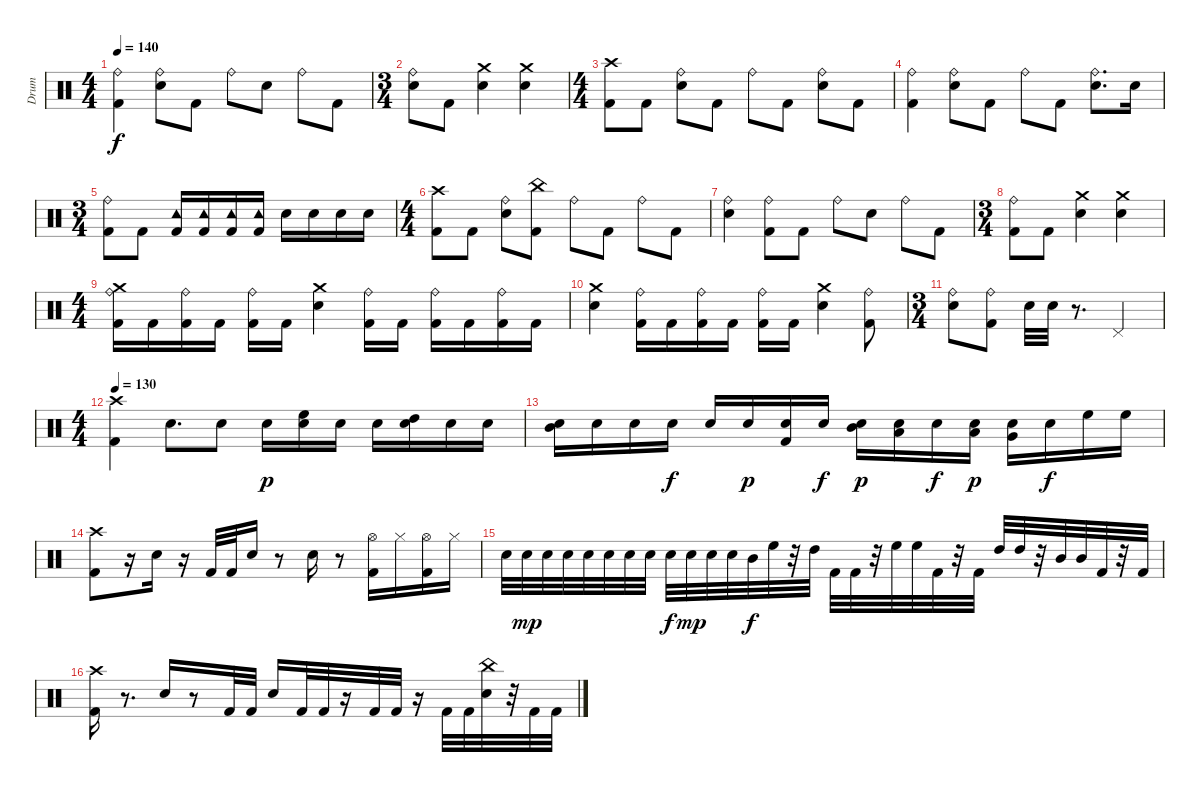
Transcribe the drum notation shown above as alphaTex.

\track ("Drum" "Drum") {instrument percussion}
\staff {score}
\articulation defaults
\ts (4 4)
\tempo 140
\clef neutral
\ks c
("Kick (hit) 2" "Ride (bell)").4{dy f} ("Electric Snare (hit)" "Ride (bell)").8 "Kick (hit) 2".8 "Ride (bell)".8 "Electric Snare (hit)".8 "Ride (bell)".8 "Kick (hit) 2".8 |
\ts (3 4)
("Ride (bell)" "Electric Snare (hit)").8 "Kick (hit) 2".8 ("Electric Snare (hit)" "Crash medium (hit)").4 ("Electric Snare (hit)" "Crash medium (hit)").4 |
\ts (4 4)
("Crash high (hit)" "Kick (hit) 2").8 "Kick (hit) 2".8 ("Electric Snare (hit)" "Ride (bell)").8 "Kick (hit) 2".8 "Ride (bell)".8 "Kick (hit) 2".8 ("Electric Snare (hit)" "Ride (bell)").8 "Kick (hit) 2".8 |
("Kick (hit) 2" "Ride (bell)").4 ("Electric Snare (hit)" "Ride (bell)").8 "Kick (hit) 2".8 "Ride (bell)".8 "Kick (hit) 2".8 ("Electric Snare (hit)" "Ride (bell)").8{d} "Electric Snare (hit)".16 |
\ts (3 4)
("Ride (bell)" "Kick (hit) 2").8 "Kick (hit) 2".8 ("Kick (hit) 2" "Tambourine (hit)").16 ("Tambourine (hit)" "Kick (hit) 2").16 ("Tambourine (hit)" "Kick (hit) 2").16 ("Tambourine (hit)" "Kick (hit) 2").16 "Electric Snare (hit)".16 "Electric Snare (hit)".16 "Electric Snare (hit)".16 "Electric Snare (hit)".16 |
\ts (4 4)
("Crash high (hit)" "Kick (hit) 2").8 "Kick (hit) 2".8 ("Electric Snare (hit)" "Ride (bell)").8 ("Kick (hit) 2" "China (hit)").8 "Ride (bell)".8 "Kick (hit) 2".8 "Ride (bell)".8 "Kick (hit) 2".8 |
("Ride (bell)" "Electric Snare (hit)").4 ("Ride (bell)" "Kick (hit) 2").8 "Kick (hit) 2".8 "Ride (bell)".8 "Electric Snare (hit)".8 "Ride (bell)".8 "Kick (hit) 2".8 |
\ts (3 4)
("Kick (hit) 2" "Ride (bell)").8 "Kick (hit) 2".8 ("Electric Snare (hit)" "Crash medium (hit)").4 ("Crash medium (hit)" "Electric Snare (hit)").4 |
\ts (4 4)
("Crash medium (hit)" "Kick (hit) 2" "Ride (bell)").16 "Kick (hit) 2".16 ("Kick (hit) 2" "Ride (bell)").16 "Kick (hit) 2".16 ("Kick (hit) 2" "Ride (bell)").16 "Kick (hit) 2".16 ("Electric Snare (hit)" "Crash medium (hit)").4 ("Ride (bell)" "Kick (hit) 2").16 "Kick (hit) 2".16 ("Kick (hit) 2" "Ride (bell)").16 "Kick (hit) 2".16 ("Kick (hit) 2" "Ride (bell)").16 "Kick (hit) 2".16 |
("Electric Snare (hit)" "Crash medium (hit)").4 ("Kick (hit) 2" "Ride (bell)").16 "Kick (hit) 2".16 ("Kick (hit) 2" "Ride (bell)").16 "Kick (hit) 2".16 ("Kick (hit) 2" "Ride (bell)").16 "Kick (hit) 2".16 ("Electric Snare (hit)" "Crash medium (hit)").4 ("Kick (hit) 2" "Ride (bell)").8 |
\ts (3 4)
("Electric Snare (hit)" "Ride (bell)").8 ("Kick (hit) 2" "Ride (bell)").8 "Electric Snare (hit)".32 "Electric Snare (hit)".32 r.8{d} "Pedal Hi-Hat (hit)".4 |
\ts (4 4)
\tempo 130
("Crash high (hit)" "Kick (hit) 2").4 "Electric Snare (hit)".8{d} "Electric Snare (hit)".8 "Electric Snare (hit)".16{dy p} ("High Floor Tom (hit)" "Electric Snare (hit)").16 "Electric Snare (hit)".16 "Electric Snare (hit)".16 ("High Tom (hit)" "Electric Snare (hit)").16 "Electric Snare (hit)".16 "Electric Snare (hit)".16 |
("Mid Tom (hit)" "Electric Snare (hit)").16 "Electric Snare (hit)".16 "Electric Snare (hit)".16 "Electric Snare (hit)".16{dy f} "Electric Snare (hit)".16 "Electric Snare (hit)".16{dy p} ("Kick (hit) 2" "Electric Snare (hit)").16 "Electric Snare (hit)".16{dy f} ("Mid Tom (hit)" "Electric Snare (hit)").16{dy p} ("Low Tom (hit)" "Electric Snare (hit)").16 "Electric Snare (hit)".16{dy f} ("Low Tom (hit)" "Electric Snare (hit)").16{dy p} ("Very Low Tom (hit)" "Electric Snare (hit)").16 "Electric Snare (hit)".16{dy f} "High Floor Tom (hit)".16 "High Floor Tom (hit)".16 |
("Crash high (hit)" "Kick (hit) 2").8 r.16 "Electric Snare (hit)".16 r.16 "Kick (hit) 2".32 "Kick (hit) 2".32 "Electric Snare (hit)".16 r.8 "Electric Snare (hit)".16 r.8 ("Kick (hit) 2" "Hi-Hat (open)").16 "Hi-Hat (closed)".16 ("Kick (hit) 2" "Hi-Hat (open)").16 "Hi-Hat (closed)".16 |
"Electric Snare (hit)".32 "Electric Snare (hit)".32{dy mp} "Electric Snare (hit)".32 "Electric Snare (hit)".32 "Electric Snare (hit)".32 "Electric Snare (hit)".32 "Electric Snare (hit)".32 "Electric Snare (hit)".32 "Electric Snare (hit)".32{dy f} "Electric Snare (hit)".32{dy mp} "Electric Snare (hit)".32 "Electric Snare (hit)".32 "Mid Tom (hit)".32{dy f} "High Floor Tom (hit)".32 r.32 "High Tom (hit)".32 "Kick (hit) 2".32 "Kick (hit) 2".32 r.32 "High Floor Tom (hit)".32 "High Floor Tom (hit)".32 "Kick (hit) 2".32 r.32 "Kick (hit) 2".32 "High Tom (hit)".32 "High Tom (hit)".32 r.32 "Mid Tom (hit)".32 "Mid Tom (hit)".32 "Kick (hit) 2".32 r.32 "Kick (hit) 2".32 |
("Crash high (hit)" "Kick (hit) 2").16 r.8{d} "Electric Snare (hit)".16 r.8 "Kick (hit) 2".32 "Kick (hit) 2".32 "Electric Snare (hit)".16 "Kick (hit) 2".32 "Kick (hit) 2".32 r.16 "Kick (hit) 2".32 "Kick (hit) 2".32 r.16 "Kick (hit) 2".32 "Kick (hit) 2".32 ("China (hit)" "Electric Snare (hit)").32 r.32 "Kick (hit) 2".32 "Kick (hit) 2".32
